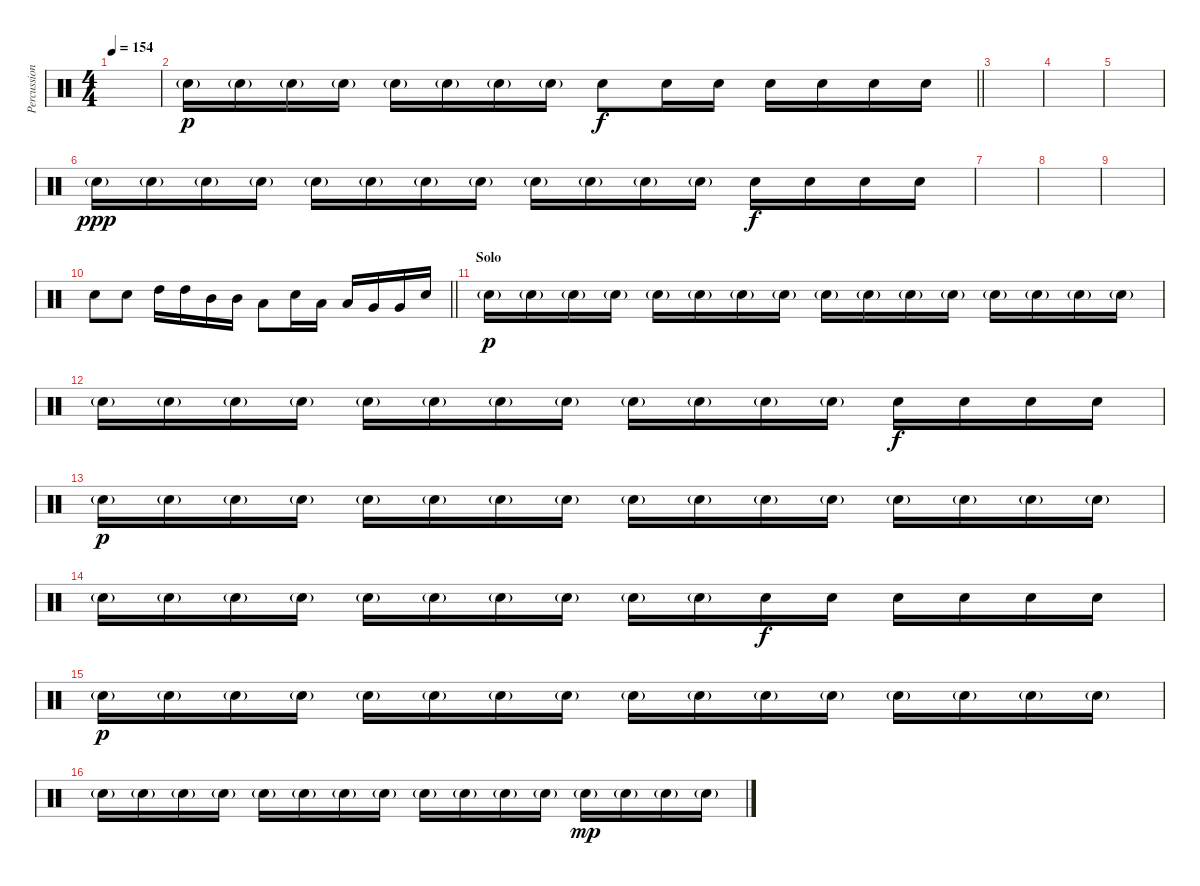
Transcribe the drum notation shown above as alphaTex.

\track ("Percussion" "Percussion") {instrument percussion}
\staff {score}
\articulation defaults
\ts (4 4)
\tempo 154
\clef neutral
\ks c
|
\barLineRight lightlight "Snare (hit) 2"{g}.16{dy p} "Snare (hit) 2"{g}.16 "Snare (hit) 2"{g}.16 "Snare (hit) 2"{g}.16 "Snare (hit) 2"{g}.16 "Snare (hit) 2"{g}.16 "Snare (hit) 2"{g}.16 "Snare (hit) 2"{g}.16 "Snare (hit) 2".8{dy f} "Snare (hit) 2".16 "Snare (hit) 2".16 "Snare (hit) 2".16 "Snare (hit) 2".16 "Snare (hit) 2".16 "Snare (hit) 2".16
|
|
|
|
"Snare (hit) 2"{g}.16{dy ppp} "Snare (hit) 2"{g}.16 "Snare (hit) 2"{g}.16 "Snare (hit) 2"{g}.16 "Snare (hit) 2"{g}.16 "Snare (hit) 2"{g}.16 "Snare (hit) 2"{g}.16 "Snare (hit) 2"{g}.16 "Snare (hit) 2"{g}.16 "Snare (hit) 2"{g}.16 "Snare (hit) 2"{g}.16 "Snare (hit) 2"{g}.16 "Snare (hit) 2".16{dy f} "Snare (hit) 2".16 "Snare (hit) 2".16 "Snare (hit) 2".16 |
|
|
|
\barLineRight lightlight "Snare (hit) 2".8 "Snare (hit) 2".8 "High Tom (hit)".16 "High Tom (hit)".16 "Mid Tom (hit)".16 "Mid Tom (hit)".16 "Low Tom (hit)".8 "Snare (hit) 2".16 "Low Tom (hit)".16 "Low Tom (hit)".16 "Very Low Tom (hit)".16 "Very Low Tom (hit)".16 "Snare (hit) 2".16
|
\section ("" "Solo")
"Snare (hit) 2"{g}.16{dy p} "Snare (hit) 2"{g}.16 "Snare (hit) 2"{g}.16 "Snare (hit) 2"{g}.16 "Snare (hit) 2"{g}.16 "Snare (hit) 2"{g}.16 "Snare (hit) 2"{g}.16 "Snare (hit) 2"{g}.16 "Snare (hit) 2"{g}.16 "Snare (hit) 2"{g}.16 "Snare (hit) 2"{g}.16 "Snare (hit) 2"{g}.16 "Snare (hit) 2"{g}.16 "Snare (hit) 2"{g}.16 "Snare (hit) 2"{g}.16 "Snare (hit) 2"{g}.16 |
"Snare (hit) 2"{g}.16 "Snare (hit) 2"{g}.16 "Snare (hit) 2"{g}.16 "Snare (hit) 2"{g}.16 "Snare (hit) 2"{g}.16 "Snare (hit) 2"{g}.16 "Snare (hit) 2"{g}.16 "Snare (hit) 2"{g}.16 "Snare (hit) 2"{g}.16 "Snare (hit) 2"{g}.16 "Snare (hit) 2"{g}.16 "Snare (hit) 2"{g}.16 "Snare (hit) 2".16{dy f} "Snare (hit) 2".16 "Snare (hit) 2".16 "Snare (hit) 2".16 |
"Snare (hit) 2"{g}.16{dy p} "Snare (hit) 2"{g}.16 "Snare (hit) 2"{g}.16 "Snare (hit) 2"{g}.16 "Snare (hit) 2"{g}.16 "Snare (hit) 2"{g}.16 "Snare (hit) 2"{g}.16 "Snare (hit) 2"{g}.16 "Snare (hit) 2"{g}.16 "Snare (hit) 2"{g}.16 "Snare (hit) 2"{g}.16 "Snare (hit) 2"{g}.16 "Snare (hit) 2"{g}.16 "Snare (hit) 2"{g}.16 "Snare (hit) 2"{g}.16 "Snare (hit) 2"{g}.16 |
"Snare (hit) 2"{g}.16 "Snare (hit) 2"{g}.16 "Snare (hit) 2"{g}.16 "Snare (hit) 2"{g}.16 "Snare (hit) 2"{g}.16 "Snare (hit) 2"{g}.16 "Snare (hit) 2"{g}.16 "Snare (hit) 2"{g}.16 "Snare (hit) 2"{g}.16 "Snare (hit) 2"{g}.16 "Snare (hit) 2".16{dy f} "Snare (hit) 2".16 "Snare (hit) 2".16 "Snare (hit) 2".16 "Snare (hit) 2".16 "Snare (hit) 2".16 |
"Snare (hit) 2"{g}.16{dy p} "Snare (hit) 2"{g}.16 "Snare (hit) 2"{g}.16 "Snare (hit) 2"{g}.16 "Snare (hit) 2"{g}.16 "Snare (hit) 2"{g}.16 "Snare (hit) 2"{g}.16 "Snare (hit) 2"{g}.16 "Snare (hit) 2"{g}.16 "Snare (hit) 2"{g}.16 "Snare (hit) 2"{g}.16 "Snare (hit) 2"{g}.16 "Snare (hit) 2"{g}.16 "Snare (hit) 2"{g}.16 "Snare (hit) 2"{g}.16 "Snare (hit) 2"{g}.16 |
"Snare (hit) 2"{g}.16 "Snare (hit) 2"{g}.16 "Snare (hit) 2"{g}.16 "Snare (hit) 2"{g}.16 "Snare (hit) 2"{g}.16 "Snare (hit) 2"{g}.16 "Snare (hit) 2"{g}.16 "Snare (hit) 2"{g}.16 "Snare (hit) 2"{g}.16 "Snare (hit) 2"{g}.16 "Snare (hit) 2"{g}.16 "Snare (hit) 2"{g}.16 "Snare (hit) 2"{g}.16{dy mp} "Snare (hit) 2"{g}.16 "Snare (hit) 2"{g}.16 "Snare (hit) 2"{g}.16
